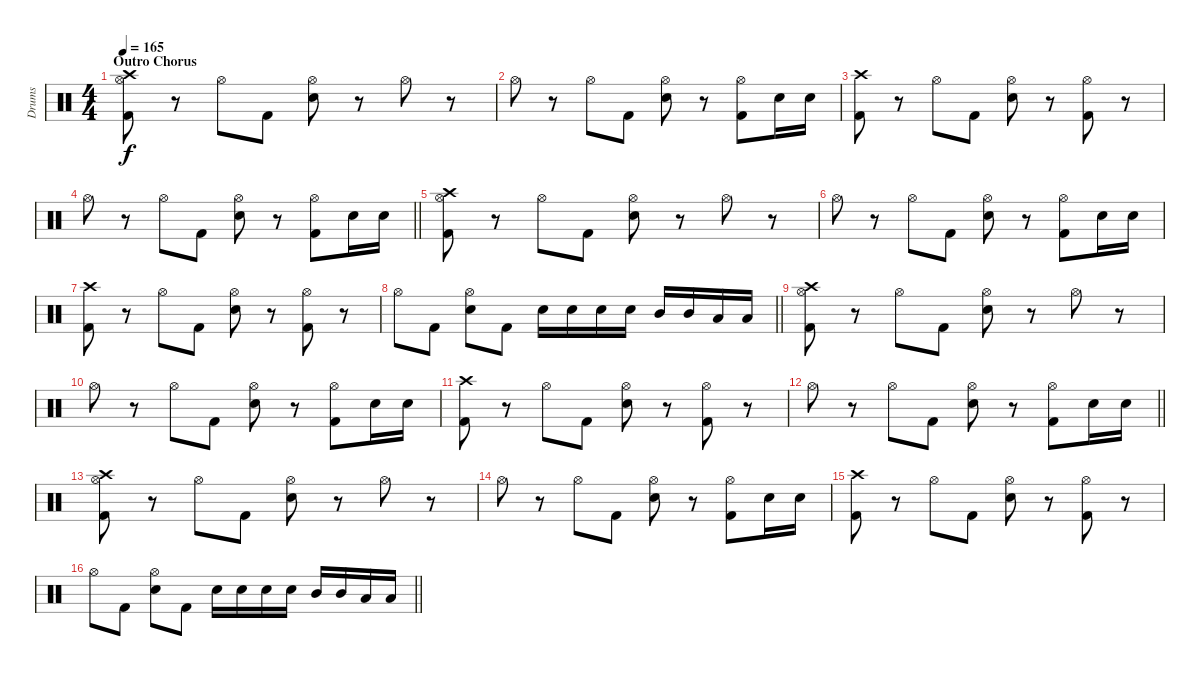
\track ("Drums" "Drums") {instrument percussion}
\staff {score}
\articulation defaults
\ts (4 4)
\section ("" "Outro Chorus")
\tempo 165
\clef neutral
\ks c
("Crash high (hit)" "Hi-Hat (open)" "Kick (hit) 2").8{dy f} r.8 "Hi-Hat (open)".8 "Kick (hit) 2".8 ("Hi-Hat (open)" "Electric Snare (hit)").8 r.8 "Hi-Hat (open)".8 r.8 |
"Hi-Hat (open)".8 r.8 "Hi-Hat (open)".8 "Kick (hit) 2".8 ("Hi-Hat (open)" "Electric Snare (hit)").8 r.8 ("Hi-Hat (open)" "Kick (hit) 2").8 "Electric Snare (hit)".16 "Electric Snare (hit)".16 |
("Crash high (hit)" "Kick (hit) 2").8 r.8 "Hi-Hat (open)".8 "Kick (hit) 2".8 ("Hi-Hat (open)" "Electric Snare (hit)").8 r.8 ("Hi-Hat (open)" "Kick (hit) 2").8 r.8 |
\barLineRight lightlight "Hi-Hat (open)".8
r.8 "Hi-Hat (open)".8 "Kick (hit) 2".8 ("Hi-Hat (open)" "Electric Snare (hit)").8 r.8 ("Hi-Hat (open)" "Kick (hit) 2").8 "Electric Snare (hit)".16 "Electric Snare (hit)".16 |
("Crash high (hit)" "Hi-Hat (open)" "Kick (hit) 2").8 r.8 "Hi-Hat (open)".8 "Kick (hit) 2".8 ("Hi-Hat (open)" "Electric Snare (hit)").8 r.8 "Hi-Hat (open)".8 r.8 |
"Hi-Hat (open)".8 r.8 "Hi-Hat (open)".8 "Kick (hit) 2".8 ("Hi-Hat (open)" "Electric Snare (hit)").8 r.8 ("Hi-Hat (open)" "Kick (hit) 2").8 "Electric Snare (hit)".16 "Electric Snare (hit)".16 |
("Crash high (hit)" "Kick (hit) 2").8 r.8 "Hi-Hat (open)".8 "Kick (hit) 2".8 ("Hi-Hat (open)" "Electric Snare (hit)").8 r.8 ("Hi-Hat (open)" "Kick (hit) 2").8 r.8 |
\barLineRight lightlight "Hi-Hat (open)".8 "Kick (hit) 2".8
("Hi-Hat (open)" "Electric Snare (hit)").8 "Kick (hit) 2".8 "Electric Snare (hit)".16 "Electric Snare (hit)".16 "Electric Snare (hit)".16 "Electric Snare (hit)".16 "Mid Tom (hit)".16 "Mid Tom (hit)".16 "Low Tom (hit)".16 "Low Tom (hit)".16 |
("Crash high (hit)" "Hi-Hat (open)" "Kick (hit) 2").8 r.8 "Hi-Hat (open)".8 "Kick (hit) 2".8 ("Hi-Hat (open)" "Electric Snare (hit)").8 r.8 "Hi-Hat (open)".8 r.8 |
"Hi-Hat (open)".8 r.8 "Hi-Hat (open)".8 "Kick (hit) 2".8 ("Hi-Hat (open)" "Electric Snare (hit)").8 r.8 ("Hi-Hat (open)" "Kick (hit) 2").8 "Electric Snare (hit)".16 "Electric Snare (hit)".16 |
("Crash high (hit)" "Kick (hit) 2").8 r.8 "Hi-Hat (open)".8 "Kick (hit) 2".8 ("Hi-Hat (open)" "Electric Snare (hit)").8 r.8 ("Hi-Hat (open)" "Kick (hit) 2").8 r.8 |
\barLineRight lightlight "Hi-Hat (open)".8
r.8 "Hi-Hat (open)".8 "Kick (hit) 2".8 ("Hi-Hat (open)" "Electric Snare (hit)").8 r.8 ("Hi-Hat (open)" "Kick (hit) 2").8 "Electric Snare (hit)".16 "Electric Snare (hit)".16 |
("Crash high (hit)" "Hi-Hat (open)" "Kick (hit) 2").8 r.8 "Hi-Hat (open)".8 "Kick (hit) 2".8 ("Hi-Hat (open)" "Electric Snare (hit)").8 r.8 "Hi-Hat (open)".8 r.8 |
"Hi-Hat (open)".8 r.8 "Hi-Hat (open)".8 "Kick (hit) 2".8 ("Hi-Hat (open)" "Electric Snare (hit)").8 r.8 ("Hi-Hat (open)" "Kick (hit) 2").8 "Electric Snare (hit)".16 "Electric Snare (hit)".16 |
("Crash high (hit)" "Kick (hit) 2").8 r.8 "Hi-Hat (open)".8 "Kick (hit) 2".8 ("Hi-Hat (open)" "Electric Snare (hit)").8 r.8 ("Hi-Hat (open)" "Kick (hit) 2").8 r.8 |
\barLineRight lightlight "Hi-Hat (open)".8 "Kick (hit) 2".8
("Hi-Hat (open)" "Electric Snare (hit)").8 "Kick (hit) 2".8 "Electric Snare (hit)".16 "Electric Snare (hit)".16 "Electric Snare (hit)".16 "Electric Snare (hit)".16 "Mid Tom (hit)".16 "Mid Tom (hit)".16 "Low Tom (hit)".16 "Low Tom (hit)".16
